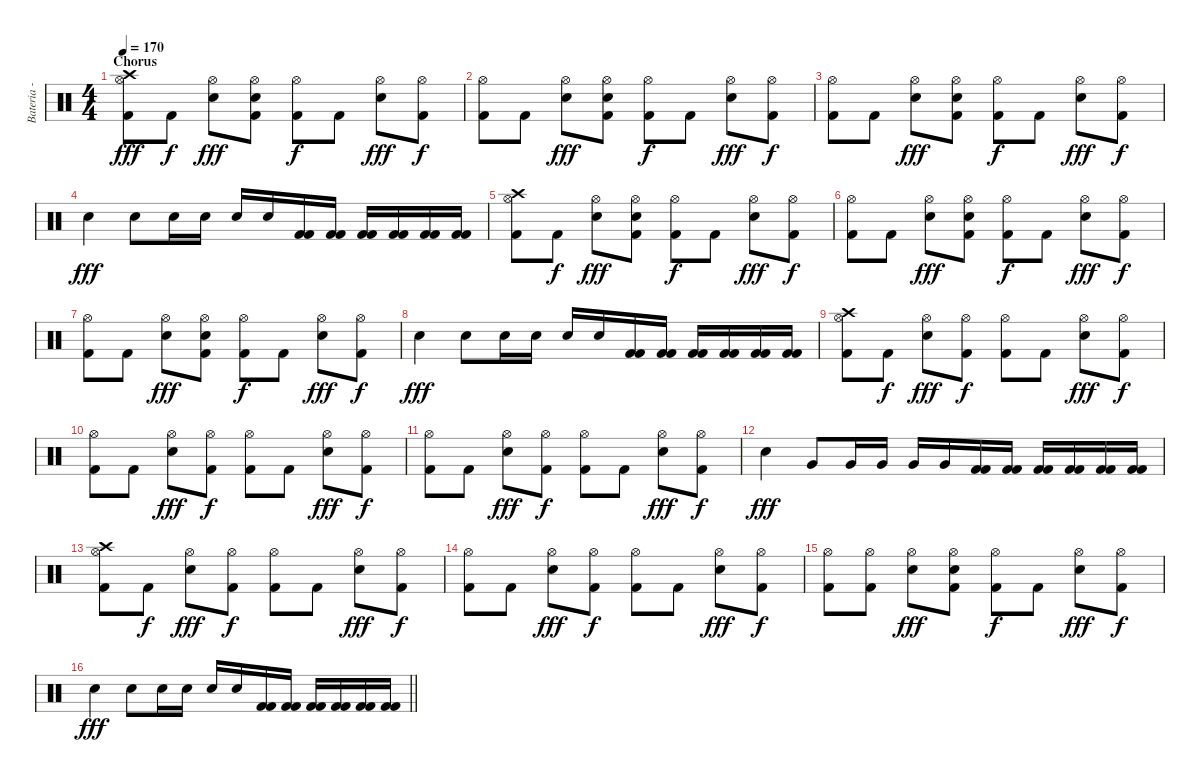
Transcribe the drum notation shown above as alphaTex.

\track ("Bateria - Larzon" "Bateria - ") {instrument percussion}
\staff {score}
\articulation defaults
\ts (4 4)
\section ("" "Chorus")
\tempo 170
\clef neutral
\ks c
("Crash high (hit)" "Kick (hit) 2" "Hi-Hat (open)").8{dy fff} "Kick (hit) 2".8{dy f} ("Hi-Hat (open)" "Snare (hit) 2").8{dy fff} ("Kick (hit) 2" "Hi-Hat (open)" "Snare (hit) 2").8 ("Kick (hit) 2" "Hi-Hat (open)").8{dy f} "Kick (hit) 2".8 ("Hi-Hat (open)" "Snare (hit) 2").8{dy fff} ("Kick (hit) 2" "Hi-Hat (open)").8{dy f} |
("Kick (hit) 2" "Hi-Hat (open)").8 "Kick (hit) 2".8 ("Hi-Hat (open)" "Snare (hit) 2").8{dy fff} ("Kick (hit) 2" "Hi-Hat (open)" "Snare (hit) 2").8 ("Kick (hit) 2" "Hi-Hat (open)").8{dy f} "Kick (hit) 2".8 ("Hi-Hat (open)" "Snare (hit) 2").8{dy fff} ("Kick (hit) 2" "Hi-Hat (open)").8{dy f} |
("Kick (hit) 2" "Hi-Hat (open)").8 "Kick (hit) 2".8 ("Hi-Hat (open)" "Snare (hit) 2").8{dy fff} ("Kick (hit) 2" "Hi-Hat (open)" "Snare (hit) 2").8 ("Kick (hit) 2" "Hi-Hat (open)").8{dy f} "Kick (hit) 2".8 ("Hi-Hat (open)" "Snare (hit) 2").8{dy fff} ("Kick (hit) 2" "Hi-Hat (open)").8{dy f} |
"Snare (hit) 2".4{dy fff} "Snare (hit) 2".8 "Snare (hit) 2".16 "Snare (hit) 2".16 "Snare (hit) 2".16 "Snare (hit) 2".16 ("Kick (hit) 2" "Kick (hit) 2").16 ("Kick (hit) 2" "Kick (hit) 2").16 ("Kick (hit) 2" "Kick (hit) 2").16 ("Kick (hit) 2" "Kick (hit) 2").16 ("Kick (hit) 2" "Kick (hit) 2").16 ("Kick (hit) 2" "Kick (hit) 2").16 |
("Crash high (hit)" "Kick (hit) 2" "Hi-Hat (open)").8 "Kick (hit) 2".8{dy f} ("Hi-Hat (open)" "Snare (hit) 2").8{dy fff} ("Kick (hit) 2" "Hi-Hat (open)" "Snare (hit) 2").8 ("Kick (hit) 2" "Hi-Hat (open)").8{dy f} "Kick (hit) 2".8 ("Hi-Hat (open)" "Snare (hit) 2").8{dy fff} ("Kick (hit) 2" "Hi-Hat (open)").8{dy f} |
("Kick (hit) 2" "Hi-Hat (open)").8 "Kick (hit) 2".8 ("Hi-Hat (open)" "Snare (hit) 2").8{dy fff} ("Kick (hit) 2" "Hi-Hat (open)" "Snare (hit) 2").8 ("Kick (hit) 2" "Hi-Hat (open)").8{dy f} "Kick (hit) 2".8 ("Hi-Hat (open)" "Snare (hit) 2").8{dy fff} ("Kick (hit) 2" "Hi-Hat (open)").8{dy f} |
("Kick (hit) 2" "Hi-Hat (open)").8 "Kick (hit) 2".8 ("Hi-Hat (open)" "Snare (hit) 2").8{dy fff} ("Kick (hit) 2" "Hi-Hat (open)" "Snare (hit) 2").8 ("Kick (hit) 2" "Hi-Hat (open)").8{dy f} "Kick (hit) 2".8 ("Hi-Hat (open)" "Snare (hit) 2").8{dy fff} ("Kick (hit) 2" "Hi-Hat (open)").8{dy f} |
"Snare (hit) 2".4{dy fff} "Snare (hit) 2".8 "Snare (hit) 2".16 "Snare (hit) 2".16 "Snare (hit) 2".16 "Snare (hit) 2".16 ("Kick (hit) 2" "Kick (hit) 2").16 ("Kick (hit) 2" "Kick (hit) 2").16 ("Kick (hit) 2" "Kick (hit) 2").16 ("Kick (hit) 2" "Kick (hit) 2").16 ("Kick (hit) 2" "Kick (hit) 2").16 ("Kick (hit) 2" "Kick (hit) 2").16 |
("Crash high (hit)" "Kick (hit) 2" "Hi-Hat (open)").8 "Kick (hit) 2".8{dy f} ("Hi-Hat (open)" "Snare (hit) 2").8{dy fff} ("Kick (hit) 2" "Hi-Hat (open)").8{dy f} ("Kick (hit) 2" "Hi-Hat (open)").8 "Kick (hit) 2".8 ("Hi-Hat (open)" "Snare (hit) 2").8{dy fff} ("Kick (hit) 2" "Hi-Hat (open)").8{dy f} |
("Kick (hit) 2" "Hi-Hat (open)").8 "Kick (hit) 2".8 ("Hi-Hat (open)" "Snare (hit) 2").8{dy fff} ("Kick (hit) 2" "Hi-Hat (open)").8{dy f} ("Kick (hit) 2" "Hi-Hat (open)").8 "Kick (hit) 2".8 ("Hi-Hat (open)" "Snare (hit) 2").8{dy fff} ("Kick (hit) 2" "Hi-Hat (open)").8{dy f} |
("Kick (hit) 2" "Hi-Hat (open)").8 "Kick (hit) 2".8 ("Hi-Hat (open)" "Snare (hit) 2").8{dy fff} ("Kick (hit) 2" "Hi-Hat (open)").8{dy f} ("Kick (hit) 2" "Hi-Hat (open)").8 "Kick (hit) 2".8 ("Hi-Hat (open)" "Snare (hit) 2").8{dy fff} ("Kick (hit) 2" "Hi-Hat (open)").8{dy f} |
"Snare (hit) 2".4{dy fff} "Very Low Tom (hit)".8 "Very Low Tom (hit)".16 "Very Low Tom (hit)".16 "Very Low Tom (hit)".16 "Very Low Tom (hit)".16 ("Kick (hit) 2" "Kick (hit) 2").16 ("Kick (hit) 2" "Kick (hit) 2").16 ("Kick (hit) 2" "Kick (hit) 2").16 ("Kick (hit) 2" "Kick (hit) 2").16 ("Kick (hit) 2" "Kick (hit) 2").16 ("Kick (hit) 2" "Kick (hit) 2").16 |
("Crash high (hit)" "Kick (hit) 2" "Hi-Hat (open)").8 "Kick (hit) 2".8{dy f} ("Hi-Hat (open)" "Snare (hit) 2").8{dy fff} ("Kick (hit) 2" "Hi-Hat (open)").8{dy f} ("Kick (hit) 2" "Hi-Hat (open)").8 "Kick (hit) 2".8 ("Hi-Hat (open)" "Snare (hit) 2").8{dy fff} ("Kick (hit) 2" "Hi-Hat (open)").8{dy f} |
("Kick (hit) 2" "Hi-Hat (open)").8 "Kick (hit) 2".8 ("Hi-Hat (open)" "Snare (hit) 2").8{dy fff} ("Kick (hit) 2" "Hi-Hat (open)").8{dy f} ("Kick (hit) 2" "Hi-Hat (open)").8 "Kick (hit) 2".8 ("Hi-Hat (open)" "Snare (hit) 2").8{dy fff} ("Kick (hit) 2" "Hi-Hat (open)").8{dy f} |
("Kick (hit) 2" "Hi-Hat (open)").8 ("Kick (hit) 2" "Hi-Hat (open)").8 ("Hi-Hat (open)" "Snare (hit) 2").8{dy fff} ("Kick (hit) 2" "Hi-Hat (open)" "Snare (hit) 2").8 ("Kick (hit) 2" "Hi-Hat (open)").8{dy f} "Kick (hit) 2".8 ("Hi-Hat (open)" "Snare (hit) 2").8{dy fff} ("Kick (hit) 2" "Hi-Hat (open)").8{dy f} |
\barLineRight lightlight "Snare (hit) 2".4{dy fff} "Snare (hit) 2".8 "Snare (hit) 2".16 "Snare (hit) 2".16 "Snare (hit) 2".16 "Snare (hit) 2".16
("Kick (hit) 2" "Kick (hit) 2").16 ("Kick (hit) 2" "Kick (hit) 2").16 ("Kick (hit) 2" "Kick (hit) 2").16 ("Kick (hit) 2" "Kick (hit) 2").16 ("Kick (hit) 2" "Kick (hit) 2").16 ("Kick (hit) 2" "Kick (hit) 2").16
